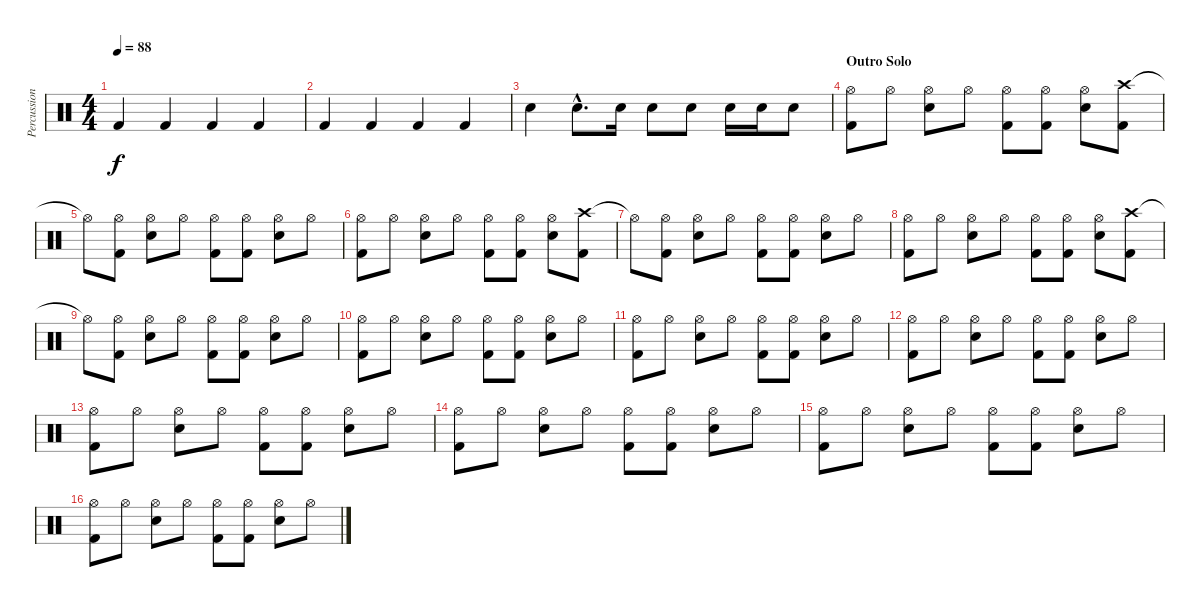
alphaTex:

\track ("Percussion" "Percussion") {instrument percussion}
\staff {score}
\articulation defaults
\ts (4 4)
\tempo 88
\clef neutral
\ks c "Kick (hit) 2".4{dy f} "Kick (hit) 2".4 "Kick (hit) 2".4 "Kick (hit) 2".4
|
"Kick (hit) 2".4 "Kick (hit) 2".4 "Kick (hit) 2".4 "Kick (hit) 2".4 |
"Snare (hit) 2".4 "Snare (hit) 2"{hac}.8{d} "Snare (hit) 2".16 "Snare (hit) 2".8 "Snare (hit) 2".8 "Snare (hit) 2".16 "Snare (hit) 2".16 "Snare (hit) 2".8 |
\section ("" "Outro Solo")
("Hi-Hat (open)" "Kick (hit) 2").8 "Hi-Hat (open)".8 ("Hi-Hat (open)" "Snare (hit) 2").8 "Hi-Hat (open)".8 ("Hi-Hat (open)" "Kick (hit) 2").8 ("Hi-Hat (open)" "Kick (hit) 2").8 ("Hi-Hat (open)" "Snare (hit) 2").8 ("Crash high (hit)" "Kick (hit) 2").8 |
"Hi-Hat (open)"{t}.8 ("Hi-Hat (open)" "Kick (hit) 2").8 ("Hi-Hat (open)" "Snare (hit) 2").8 "Hi-Hat (open)".8 ("Hi-Hat (open)" "Kick (hit) 2").8 ("Hi-Hat (open)" "Kick (hit) 2").8 ("Hi-Hat (open)" "Snare (hit) 2").8 "Hi-Hat (open)".8 |
("Hi-Hat (open)" "Kick (hit) 2").8 "Hi-Hat (open)".8 ("Hi-Hat (open)" "Snare (hit) 2").8 "Hi-Hat (open)".8 ("Hi-Hat (open)" "Kick (hit) 2").8 ("Hi-Hat (open)" "Kick (hit) 2").8 ("Hi-Hat (open)" "Snare (hit) 2").8 ("Crash high (hit)" "Kick (hit) 2").8 |
"Hi-Hat (open)"{t}.8 ("Hi-Hat (open)" "Kick (hit) 2").8 ("Hi-Hat (open)" "Snare (hit) 2").8 "Hi-Hat (open)".8 ("Hi-Hat (open)" "Kick (hit) 2").8 ("Hi-Hat (open)" "Kick (hit) 2").8 ("Hi-Hat (open)" "Snare (hit) 2").8 "Hi-Hat (open)".8 |
("Hi-Hat (open)" "Kick (hit) 2").8 "Hi-Hat (open)".8 ("Hi-Hat (open)" "Snare (hit) 2").8 "Hi-Hat (open)".8 ("Hi-Hat (open)" "Kick (hit) 2").8 ("Hi-Hat (open)" "Kick (hit) 2").8 ("Hi-Hat (open)" "Snare (hit) 2").8 ("Crash high (hit)" "Kick (hit) 2").8 |
"Hi-Hat (open)"{t}.8 ("Hi-Hat (open)" "Kick (hit) 2").8 ("Hi-Hat (open)" "Snare (hit) 2").8 "Hi-Hat (open)".8 ("Hi-Hat (open)" "Kick (hit) 2").8 ("Hi-Hat (open)" "Kick (hit) 2").8 ("Hi-Hat (open)" "Snare (hit) 2").8 "Hi-Hat (open)".8 |
("Hi-Hat (open)" "Kick (hit) 2").8 "Hi-Hat (open)".8 ("Hi-Hat (open)" "Snare (hit) 2").8 "Hi-Hat (open)".8 ("Hi-Hat (open)" "Kick (hit) 2").8 ("Hi-Hat (open)" "Kick (hit) 2").8 ("Hi-Hat (open)" "Snare (hit) 2").8 "Hi-Hat (open)".8 |
("Hi-Hat (open)" "Kick (hit) 2").8 "Hi-Hat (open)".8 ("Hi-Hat (open)" "Snare (hit) 2").8 "Hi-Hat (open)".8 ("Hi-Hat (open)" "Kick (hit) 2").8 ("Hi-Hat (open)" "Kick (hit) 2").8 ("Hi-Hat (open)" "Snare (hit) 2").8 "Hi-Hat (open)".8 |
("Hi-Hat (open)" "Kick (hit) 2").8 "Hi-Hat (open)".8 ("Hi-Hat (open)" "Snare (hit) 2").8 "Hi-Hat (open)".8 ("Hi-Hat (open)" "Kick (hit) 2").8 ("Hi-Hat (open)" "Kick (hit) 2").8 ("Hi-Hat (open)" "Snare (hit) 2").8 "Hi-Hat (open)".8 |
("Hi-Hat (open)" "Kick (hit) 2").8 "Hi-Hat (open)".8 ("Hi-Hat (open)" "Snare (hit) 2").8 "Hi-Hat (open)".8 ("Hi-Hat (open)" "Kick (hit) 2").8 ("Hi-Hat (open)" "Kick (hit) 2").8 ("Hi-Hat (open)" "Snare (hit) 2").8 "Hi-Hat (open)".8 |
("Hi-Hat (open)" "Kick (hit) 2").8 "Hi-Hat (open)".8 ("Hi-Hat (open)" "Snare (hit) 2").8 "Hi-Hat (open)".8 ("Hi-Hat (open)" "Kick (hit) 2").8 ("Hi-Hat (open)" "Kick (hit) 2").8 ("Hi-Hat (open)" "Snare (hit) 2").8 "Hi-Hat (open)".8 |
("Hi-Hat (open)" "Kick (hit) 2").8 "Hi-Hat (open)".8 ("Hi-Hat (open)" "Snare (hit) 2").8 "Hi-Hat (open)".8 ("Hi-Hat (open)" "Kick (hit) 2").8 ("Hi-Hat (open)" "Kick (hit) 2").8 ("Hi-Hat (open)" "Snare (hit) 2").8 "Hi-Hat (open)".8 |
("Hi-Hat (open)" "Kick (hit) 2").8 "Hi-Hat (open)".8 ("Hi-Hat (open)" "Snare (hit) 2").8 "Hi-Hat (open)".8 ("Hi-Hat (open)" "Kick (hit) 2").8 ("Hi-Hat (open)" "Kick (hit) 2").8 ("Hi-Hat (open)" "Snare (hit) 2").8 "Hi-Hat (open)".8
